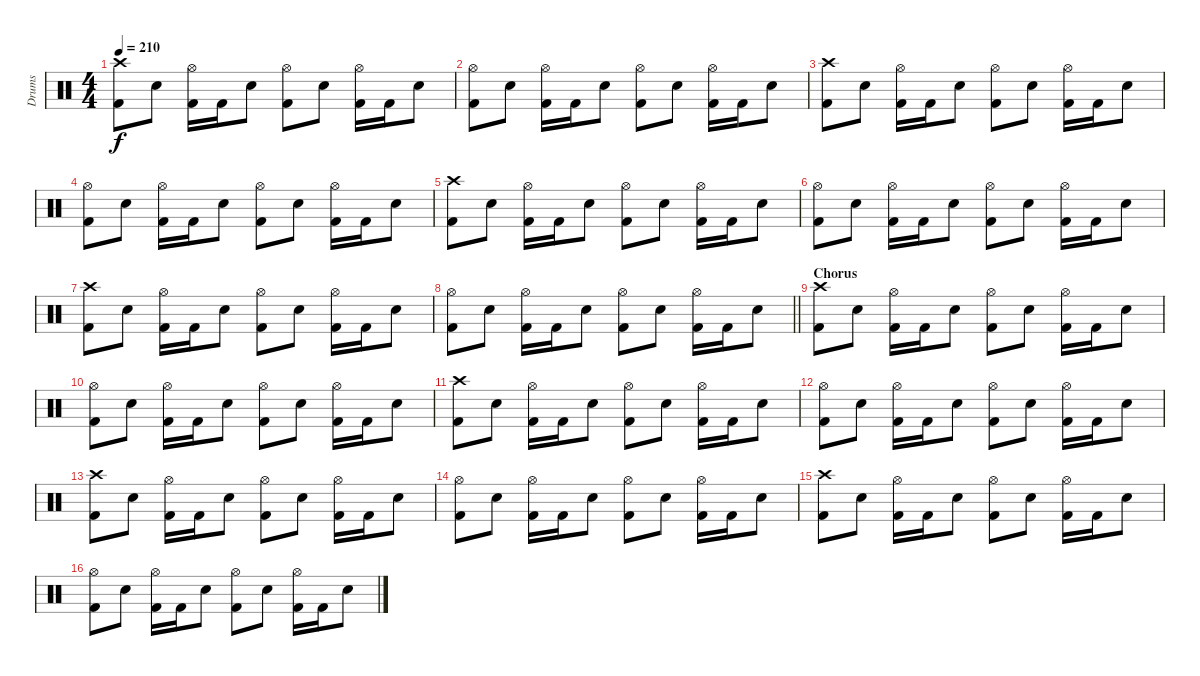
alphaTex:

\track ("Drums" "Drums") {instrument percussion}
\staff {score}
\articulation defaults
\ts (4 4)
\tempo 210
\clef neutral
\ks c
("Crash high (hit)" "Kick (hit) 2").8{dy f} "Snare (hit) 2".8 ("Hi-Hat (open)" "Kick (hit) 2").16 "Kick (hit) 2".16 "Snare (hit) 2".8 ("Hi-Hat (open)" "Kick (hit) 2").8 "Snare (hit) 2".8 ("Hi-Hat (open)" "Kick (hit) 2").16 "Kick (hit) 2".16 "Snare (hit) 2".8 |
("Hi-Hat (open)" "Kick (hit) 2").8 "Snare (hit) 2".8 ("Hi-Hat (open)" "Kick (hit) 2").16 "Kick (hit) 2".16 "Snare (hit) 2".8 ("Hi-Hat (open)" "Kick (hit) 2").8 "Snare (hit) 2".8 ("Hi-Hat (open)" "Kick (hit) 2").16 "Kick (hit) 2".16 "Snare (hit) 2".8 |
("Crash high (hit)" "Kick (hit) 2").8 "Snare (hit) 2".8 ("Hi-Hat (open)" "Kick (hit) 2").16 "Kick (hit) 2".16 "Snare (hit) 2".8 ("Hi-Hat (open)" "Kick (hit) 2").8 "Snare (hit) 2".8 ("Hi-Hat (open)" "Kick (hit) 2").16 "Kick (hit) 2".16 "Snare (hit) 2".8 |
("Hi-Hat (open)" "Kick (hit) 2").8 "Snare (hit) 2".8 ("Hi-Hat (open)" "Kick (hit) 2").16 "Kick (hit) 2".16 "Snare (hit) 2".8 ("Hi-Hat (open)" "Kick (hit) 2").8 "Snare (hit) 2".8 ("Hi-Hat (open)" "Kick (hit) 2").16 "Kick (hit) 2".16 "Snare (hit) 2".8 |
("Crash high (hit)" "Kick (hit) 2").8 "Snare (hit) 2".8 ("Hi-Hat (open)" "Kick (hit) 2").16 "Kick (hit) 2".16 "Snare (hit) 2".8 ("Hi-Hat (open)" "Kick (hit) 2").8 "Snare (hit) 2".8 ("Hi-Hat (open)" "Kick (hit) 2").16 "Kick (hit) 2".16 "Snare (hit) 2".8 |
("Hi-Hat (open)" "Kick (hit) 2").8 "Snare (hit) 2".8 ("Hi-Hat (open)" "Kick (hit) 2").16 "Kick (hit) 2".16 "Snare (hit) 2".8 ("Hi-Hat (open)" "Kick (hit) 2").8 "Snare (hit) 2".8 ("Hi-Hat (open)" "Kick (hit) 2").16 "Kick (hit) 2".16 "Snare (hit) 2".8 |
("Crash high (hit)" "Kick (hit) 2").8 "Snare (hit) 2".8 ("Hi-Hat (open)" "Kick (hit) 2").16 "Kick (hit) 2".16 "Snare (hit) 2".8 ("Hi-Hat (open)" "Kick (hit) 2").8 "Snare (hit) 2".8 ("Hi-Hat (open)" "Kick (hit) 2").16 "Kick (hit) 2".16 "Snare (hit) 2".8 |
\barLineRight lightlight
("Hi-Hat (open)" "Kick (hit) 2").8 "Snare (hit) 2".8 ("Hi-Hat (open)" "Kick (hit) 2").16 "Kick (hit) 2".16 "Snare (hit) 2".8 ("Hi-Hat (open)" "Kick (hit) 2").8 "Snare (hit) 2".8 ("Hi-Hat (open)" "Kick (hit) 2").16 "Kick (hit) 2".16 "Snare (hit) 2".8 |
\section ("" "Chorus")
("Crash high (hit)" "Kick (hit) 2").8 "Snare (hit) 2".8 ("Hi-Hat (open)" "Kick (hit) 2").16 "Kick (hit) 2".16 "Snare (hit) 2".8 ("Hi-Hat (open)" "Kick (hit) 2").8 "Snare (hit) 2".8 ("Hi-Hat (open)" "Kick (hit) 2").16 "Kick (hit) 2".16 "Snare (hit) 2".8 |
("Hi-Hat (open)" "Kick (hit) 2").8 "Snare (hit) 2".8 ("Hi-Hat (open)" "Kick (hit) 2").16 "Kick (hit) 2".16 "Snare (hit) 2".8 ("Hi-Hat (open)" "Kick (hit) 2").8 "Snare (hit) 2".8 ("Hi-Hat (open)" "Kick (hit) 2").16 "Kick (hit) 2".16 "Snare (hit) 2".8 |
("Crash high (hit)" "Kick (hit) 2").8 "Snare (hit) 2".8 ("Hi-Hat (open)" "Kick (hit) 2").16 "Kick (hit) 2".16 "Snare (hit) 2".8 ("Hi-Hat (open)" "Kick (hit) 2").8 "Snare (hit) 2".8 ("Hi-Hat (open)" "Kick (hit) 2").16 "Kick (hit) 2".16 "Snare (hit) 2".8 |
("Hi-Hat (open)" "Kick (hit) 2").8 "Snare (hit) 2".8 ("Hi-Hat (open)" "Kick (hit) 2").16 "Kick (hit) 2".16 "Snare (hit) 2".8 ("Hi-Hat (open)" "Kick (hit) 2").8 "Snare (hit) 2".8 ("Hi-Hat (open)" "Kick (hit) 2").16 "Kick (hit) 2".16 "Snare (hit) 2".8 |
("Crash high (hit)" "Kick (hit) 2").8 "Snare (hit) 2".8 ("Hi-Hat (open)" "Kick (hit) 2").16 "Kick (hit) 2".16 "Snare (hit) 2".8 ("Hi-Hat (open)" "Kick (hit) 2").8 "Snare (hit) 2".8 ("Hi-Hat (open)" "Kick (hit) 2").16 "Kick (hit) 2".16 "Snare (hit) 2".8 |
("Hi-Hat (open)" "Kick (hit) 2").8 "Snare (hit) 2".8 ("Hi-Hat (open)" "Kick (hit) 2").16 "Kick (hit) 2".16 "Snare (hit) 2".8 ("Hi-Hat (open)" "Kick (hit) 2").8 "Snare (hit) 2".8 ("Hi-Hat (open)" "Kick (hit) 2").16 "Kick (hit) 2".16 "Snare (hit) 2".8 |
("Crash high (hit)" "Kick (hit) 2").8 "Snare (hit) 2".8 ("Hi-Hat (open)" "Kick (hit) 2").16 "Kick (hit) 2".16 "Snare (hit) 2".8 ("Hi-Hat (open)" "Kick (hit) 2").8 "Snare (hit) 2".8 ("Hi-Hat (open)" "Kick (hit) 2").16 "Kick (hit) 2".16 "Snare (hit) 2".8 |
("Hi-Hat (open)" "Kick (hit) 2").8 "Snare (hit) 2".8 ("Hi-Hat (open)" "Kick (hit) 2").16 "Kick (hit) 2".16 "Snare (hit) 2".8 ("Hi-Hat (open)" "Kick (hit) 2").8 "Snare (hit) 2".8 ("Hi-Hat (open)" "Kick (hit) 2").16 "Kick (hit) 2".16 "Snare (hit) 2".8
